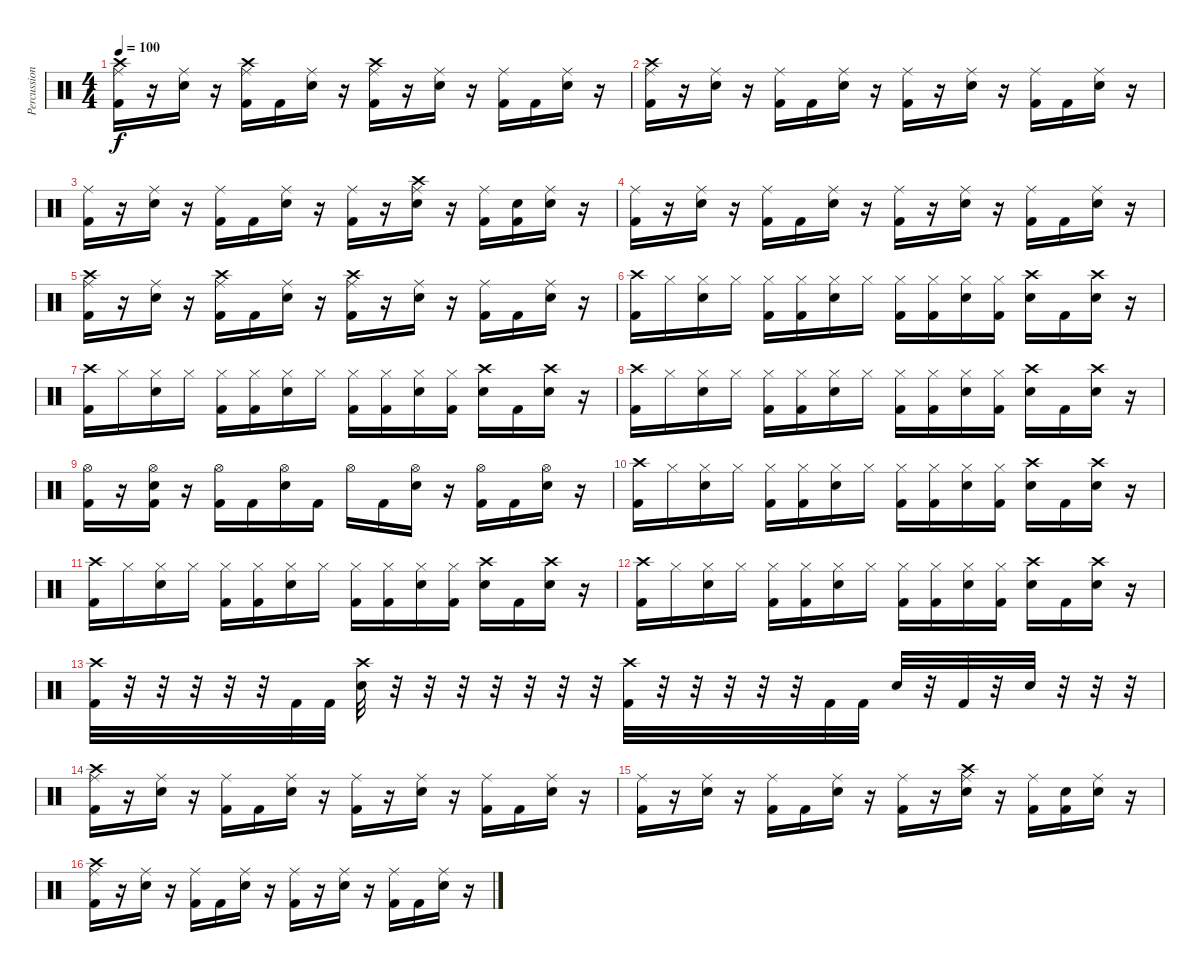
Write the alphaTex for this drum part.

\track ("Percussion" "Percussion") {instrument percussion}
\staff {score}
\articulation defaults
\ts (4 4)
\tempo 100
\clef neutral
\ks c
("Crash high (hit)" "Ride (middle)" "Kick (hit) 2").16{dy f} r.16 ("Ride (middle)" "Snare (hit) 2").16 r.16 ("Crash high (hit)" "Ride (middle)" "Kick (hit) 2").16 "Kick (hit) 2".16 ("Ride (middle)" "Snare (hit) 2").16 r.16 ("Crash high (hit)" "Ride (middle)" "Kick (hit) 2").16 r.16 ("Ride (middle)" "Snare (hit) 2").16 r.16 ("Ride (middle)" "Kick (hit) 2").16 "Kick (hit) 2".16 ("Ride (middle)" "Snare (hit) 2").16 r.16 |
("Crash high (hit)" "Ride (middle)" "Kick (hit) 2").16 r.16 ("Ride (middle)" "Snare (hit) 2").16 r.16 ("Ride (middle)" "Kick (hit) 2").16 "Kick (hit) 2".16 ("Ride (middle)" "Snare (hit) 2").16 r.16 ("Ride (middle)" "Kick (hit) 2").16 r.16 ("Ride (middle)" "Snare (hit) 2").16 r.16 ("Ride (middle)" "Kick (hit) 2").16 "Kick (hit) 2".16 ("Ride (middle)" "Snare (hit) 2").16 r.16 |
("Ride (middle)" "Kick (hit) 2").16 r.16 ("Ride (middle)" "Snare (hit) 2").16 r.16 ("Ride (middle)" "Kick (hit) 2").16 "Kick (hit) 2".16 ("Ride (middle)" "Snare (hit) 2").16 r.16 ("Ride (middle)" "Kick (hit) 2").16 r.16 ("Crash high (hit)" "Ride (middle)" "Snare (hit) 2").16 r.16 ("Ride (middle)" "Kick (hit) 2").16 ("Snare (hit) 2" "Kick (hit) 2").16 ("Ride (middle)" "Snare (hit) 2").16 r.16 |
("Ride (middle)" "Kick (hit) 2").16 r.16 ("Ride (middle)" "Snare (hit) 2").16 r.16 ("Ride (middle)" "Kick (hit) 2").16 "Kick (hit) 2".16 ("Ride (middle)" "Snare (hit) 2").16 r.16 ("Ride (middle)" "Kick (hit) 2").16 r.16 ("Ride (middle)" "Snare (hit) 2").16 r.16 ("Ride (middle)" "Kick (hit) 2").16 "Kick (hit) 2".16 ("Ride (middle)" "Snare (hit) 2").16 r.16 |
("Crash high (hit)" "Ride (middle)" "Kick (hit) 2").16 r.16 ("Ride (middle)" "Snare (hit) 2").16 r.16 ("Crash high (hit)" "Ride (middle)" "Kick (hit) 2").16 "Kick (hit) 2".16 ("Ride (middle)" "Snare (hit) 2").16 r.16 ("Crash high (hit)" "Ride (middle)" "Kick (hit) 2").16 r.16 ("Ride (middle)" "Snare (hit) 2").16 r.16 ("Ride (middle)" "Kick (hit) 2").16 "Kick (hit) 2".16 ("Ride (middle)" "Snare (hit) 2").16 r.16 |
("Crash high (hit)" "Kick (hit) 2").16 "Hi-Hat (closed)".16 ("Hi-Hat (closed)" "Snare (hit) 2").16 "Hi-Hat (closed)".16 ("Hi-Hat (closed)" "Kick (hit) 2").16 ("Hi-Hat (closed)" "Kick (hit) 2").16 ("Hi-Hat (closed)" "Snare (hit) 2").16 "Hi-Hat (closed)".16 ("Hi-Hat (closed)" "Kick (hit) 2").16 ("Hi-Hat (closed)" "Kick (hit) 2").16 ("Hi-Hat (closed)" "Snare (hit) 2").16 ("Hi-Hat (closed)" "Kick (hit) 2").16 ("Crash high (hit)" "Snare (hit) 2").16 "Kick (hit) 2".16 ("Crash high (hit)" "Snare (hit) 2").16 r.16 |
("Crash high (hit)" "Kick (hit) 2").16 "Hi-Hat (closed)".16 ("Hi-Hat (closed)" "Snare (hit) 2").16 "Hi-Hat (closed)".16 ("Hi-Hat (closed)" "Kick (hit) 2").16 ("Hi-Hat (closed)" "Kick (hit) 2").16 ("Hi-Hat (closed)" "Snare (hit) 2").16 "Hi-Hat (closed)".16 ("Hi-Hat (closed)" "Kick (hit) 2").16 ("Hi-Hat (closed)" "Kick (hit) 2").16 ("Hi-Hat (closed)" "Snare (hit) 2").16 ("Hi-Hat (closed)" "Kick (hit) 2").16 ("Crash high (hit)" "Snare (hit) 2").16 "Kick (hit) 2".16 ("Crash high (hit)" "Snare (hit) 2").16 r.16 |
("Crash high (hit)" "Kick (hit) 2").16 "Hi-Hat (closed)".16 ("Hi-Hat (closed)" "Snare (hit) 2").16 "Hi-Hat (closed)".16 ("Hi-Hat (closed)" "Kick (hit) 2").16 ("Hi-Hat (closed)" "Kick (hit) 2").16 ("Hi-Hat (closed)" "Snare (hit) 2").16 "Hi-Hat (closed)".16 ("Hi-Hat (closed)" "Kick (hit) 2").16 ("Hi-Hat (closed)" "Kick (hit) 2").16 ("Hi-Hat (closed)" "Snare (hit) 2").16 ("Hi-Hat (closed)" "Kick (hit) 2").16 ("Crash high (hit)" "Snare (hit) 2").16 "Kick (hit) 2".16 ("Crash high (hit)" "Snare (hit) 2").16 r.16 |
("Hi-Hat (open)" "Kick (hit) 2").16 r.16 ("Hi-Hat (open)" "Snare (hit) 2" "Kick (hit) 2").16 r.16 ("Hi-Hat (open)" "Kick (hit) 2").16 "Kick (hit) 2".16 ("Hi-Hat (open)" "Snare (hit) 2").16 "Kick (hit) 2".16 "Hi-Hat (open)".16 "Kick (hit) 2".16 ("Hi-Hat (open)" "Snare (hit) 2").16 r.16 ("Hi-Hat (open)" "Kick (hit) 2").16 "Kick (hit) 2".16 ("Hi-Hat (open)" "Snare (hit) 2").16 r.16 |
("Crash high (hit)" "Kick (hit) 2").16 "Hi-Hat (closed)".16 ("Hi-Hat (closed)" "Snare (hit) 2").16 "Hi-Hat (closed)".16 ("Hi-Hat (closed)" "Kick (hit) 2").16 ("Hi-Hat (closed)" "Kick (hit) 2").16 ("Hi-Hat (closed)" "Snare (hit) 2").16 "Hi-Hat (closed)".16 ("Hi-Hat (closed)" "Kick (hit) 2").16 ("Hi-Hat (closed)" "Kick (hit) 2").16 ("Hi-Hat (closed)" "Snare (hit) 2").16 ("Hi-Hat (closed)" "Kick (hit) 2").16 ("Crash high (hit)" "Snare (hit) 2").16 "Kick (hit) 2".16 ("Crash high (hit)" "Snare (hit) 2").16 r.16 |
("Crash high (hit)" "Kick (hit) 2").16 "Hi-Hat (closed)".16 ("Hi-Hat (closed)" "Snare (hit) 2").16 "Hi-Hat (closed)".16 ("Hi-Hat (closed)" "Kick (hit) 2").16 ("Hi-Hat (closed)" "Kick (hit) 2").16 ("Hi-Hat (closed)" "Snare (hit) 2").16 "Hi-Hat (closed)".16 ("Hi-Hat (closed)" "Kick (hit) 2").16 ("Hi-Hat (closed)" "Kick (hit) 2").16 ("Hi-Hat (closed)" "Snare (hit) 2").16 ("Hi-Hat (closed)" "Kick (hit) 2").16 ("Crash high (hit)" "Snare (hit) 2").16 "Kick (hit) 2".16 ("Crash high (hit)" "Snare (hit) 2").16 r.16 |
("Crash high (hit)" "Kick (hit) 2").16 "Hi-Hat (closed)".16 ("Hi-Hat (closed)" "Snare (hit) 2").16 "Hi-Hat (closed)".16 ("Hi-Hat (closed)" "Kick (hit) 2").16 ("Hi-Hat (closed)" "Kick (hit) 2").16 ("Hi-Hat (closed)" "Snare (hit) 2").16 "Hi-Hat (closed)".16 ("Hi-Hat (closed)" "Kick (hit) 2").16 ("Hi-Hat (closed)" "Kick (hit) 2").16 ("Hi-Hat (closed)" "Snare (hit) 2").16 ("Hi-Hat (closed)" "Kick (hit) 2").16 ("Crash high (hit)" "Snare (hit) 2").16 "Kick (hit) 2".16 ("Crash high (hit)" "Snare (hit) 2").16 r.16 |
("Crash high (hit)" "Kick (hit) 2").32 r.32 r.32 r.32 r.32 r.32 "Kick (hit) 2".32 "Kick (hit) 2".32 ("Crash high (hit)" "Snare (hit) 2").32 r.32 r.32 r.32 r.32 r.32 r.32 r.32 ("Crash high (hit)" "Kick (hit) 2").32 r.32 r.32 r.32 r.32 r.32 "Kick (hit) 2".32 "Kick (hit) 2".32 "Snare (hit) 2".32 r.32 "Kick (hit) 2".32 r.32 "Snare (hit) 2".32 r.32 r.32 r.32 |
("Crash high (hit)" "Ride (middle)" "Kick (hit) 2").16 r.16 ("Ride (middle)" "Snare (hit) 2").16 r.16 ("Ride (middle)" "Kick (hit) 2").16 "Kick (hit) 2".16 ("Ride (middle)" "Snare (hit) 2").16 r.16 ("Ride (middle)" "Kick (hit) 2").16 r.16 ("Ride (middle)" "Snare (hit) 2").16 r.16 ("Ride (middle)" "Kick (hit) 2").16 "Kick (hit) 2".16 ("Ride (middle)" "Snare (hit) 2").16 r.16 |
("Ride (middle)" "Kick (hit) 2").16 r.16 ("Ride (middle)" "Snare (hit) 2").16 r.16 ("Ride (middle)" "Kick (hit) 2").16 "Kick (hit) 2".16 ("Ride (middle)" "Snare (hit) 2").16 r.16 ("Ride (middle)" "Kick (hit) 2").16 r.16 ("Crash high (hit)" "Ride (middle)" "Snare (hit) 2").16 r.16 ("Ride (middle)" "Kick (hit) 2").16 ("Snare (hit) 2" "Kick (hit) 2").16 ("Ride (middle)" "Snare (hit) 2").16 r.16 |
("Crash high (hit)" "Ride (middle)" "Kick (hit) 2").16 r.16 ("Ride (middle)" "Snare (hit) 2").16 r.16 ("Ride (middle)" "Kick (hit) 2").16 "Kick (hit) 2".16 ("Ride (middle)" "Snare (hit) 2").16 r.16 ("Ride (middle)" "Kick (hit) 2").16 r.16 ("Ride (middle)" "Snare (hit) 2").16 r.16 ("Ride (middle)" "Kick (hit) 2").16 "Kick (hit) 2".16 ("Ride (middle)" "Snare (hit) 2").16 r.16
